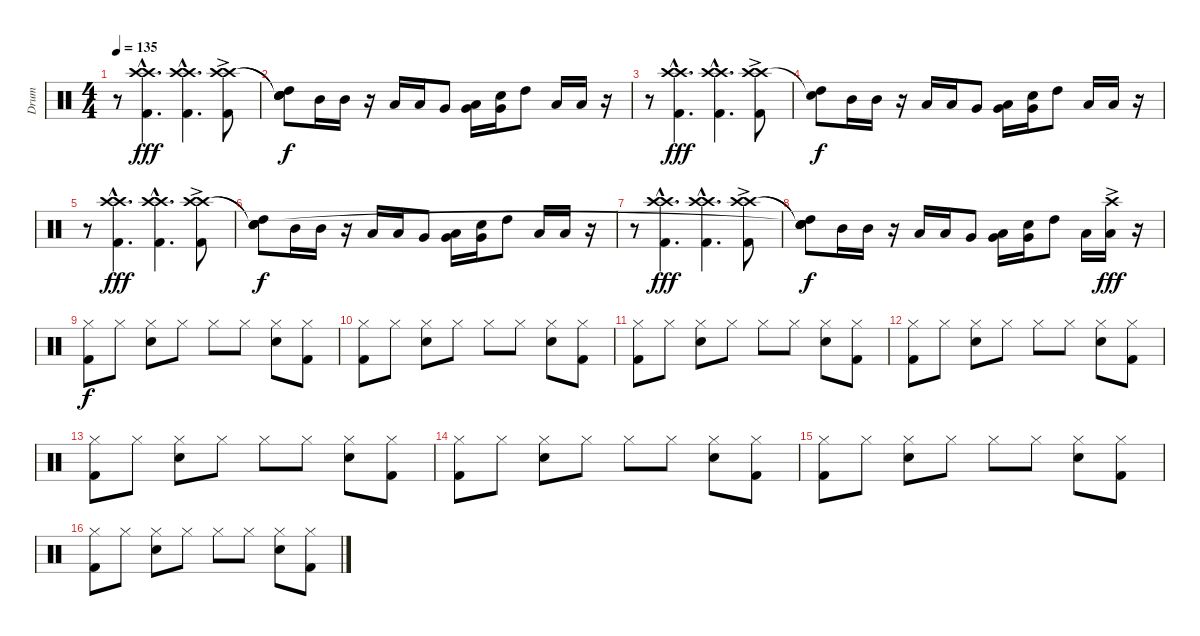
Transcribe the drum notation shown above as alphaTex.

\track ("Drum" "Drum") {instrument percussion}
\staff {score}
\articulation defaults
\ts (4 4)
\tempo 135
\clef neutral
\ks c
r.8{dy f} ("Crash high (hit)"{hac} "Crash high (hit)"{hac} "Kick (hit) 2"{hac}).4{d dy fff} ("Crash high (hit)"{hac} "Crash high (hit)"{hac} "Kick (hit) 2"{hac}).4{d} ("Crash high (hit)"{ac} "Crash high (hit)"{ac} "Kick (hit) 2"{ac}).8 |
("Snare (hit)"{t} "Snare (hit)"{t} "High Tom (hit)" "Snare (hit)").8{dy f} "Mid Tom (hit)".16 "Mid Tom (hit)".16 r.16 "Low Tom (hit)".16 "Low Tom (hit)".16 "Very Low Tom (hit)".8 ("Low Floor Tom (hit)" "Very Low Tom (hit)").16 ("Electric Snare (hit)" "Very Low Tom (hit)").16 "High Tom (hit)".8 "Low Floor Tom (hit)".16 "Low Floor Tom (hit)".16 r.16 |
r.8 ("Crash high (hit)"{hac} "Crash high (hit)"{hac} "Kick (hit) 2"{hac}).4{d dy fff} ("Crash high (hit)"{hac} "Crash high (hit)"{hac} "Kick (hit) 2"{hac}).4{d} ("Crash high (hit)"{ac} "Crash high (hit)"{ac} "Kick (hit) 2"{ac}).8 |
("High Tom (hit)" "Snare (hit)"{t}).8{dy f} "Mid Tom (hit)".16 "Mid Tom (hit)".16 r.16 "Low Tom (hit)".16 "Low Tom (hit)".16 "Very Low Tom (hit)".8 ("Low Floor Tom (hit)" "Very Low Tom (hit)").16 ("Electric Snare (hit)" "Very Low Tom (hit)").16 "High Tom (hit)".8 "Low Floor Tom (hit)".16 "Low Floor Tom (hit)".16 r.16 |
r.8 ("Crash high (hit)"{hac} "Crash high (hit)"{hac} "Kick (hit) 2"{hac}).4{d dy fff} ("Crash high (hit)"{hac} "Crash high (hit)"{hac} "Kick (hit) 2"{hac}).4{d} ("Crash high (hit)"{ac} "Crash high (hit)"{ac} "Kick (hit) 2"{ac}).8 |
("Snare (hit)"{t} "Snare (hit)"{t} "High Tom (hit)" "Snare (hit)").8{dy f} "Mid Tom (hit)".16 "Mid Tom (hit)".16 r.16 "Low Tom (hit)".16 "Low Tom (hit)".16 "Very Low Tom (hit)".8 ("Low Floor Tom (hit)" "Very Low Tom (hit)").16 ("Electric Snare (hit)" "Very Low Tom (hit)").16 "High Tom (hit)".8 "Low Floor Tom (hit)".16 "Low Floor Tom (hit)".16 r.16 |
r.8 ("Crash high (hit)"{hac} "Crash high (hit)"{hac} "Kick (hit) 2"{hac}).4{d dy fff} ("Crash high (hit)"{hac} "Crash high (hit)"{hac} "Kick (hit) 2"{hac}).4{d} ("Crash high (hit)"{ac} "Crash high (hit)"{ac} "Kick (hit) 2"{ac}).8 |
("Snare (hit)"{t} "Snare (hit)"{t} "High Tom (hit)" "Snare (hit)"{t}).8{dy f} "Mid Tom (hit)".16 "Mid Tom (hit)".16 r.16 "Low Tom (hit)".16 "Low Tom (hit)".16 "Very Low Tom (hit)".8 ("Low Floor Tom (hit)" "Very Low Tom (hit)").16 ("Electric Snare (hit)" "Very Low Tom (hit)").16 "High Tom (hit)".8 "Low Floor Tom (hit)".16 ("Crash high (hit)"{ac} "Low Floor Tom (hit)").16{dy fff} r.16 |
("Hi-Hat (closed)" "Kick (hit) 2").8{dy f} "Hi-Hat (closed)".8 ("Snare (hit) 2" "Hi-Hat (closed)").8 "Hi-Hat (closed)".8 "Hi-Hat (closed)".8 "Hi-Hat (closed)".8 ("Snare (hit) 2" "Hi-Hat (closed)").8 ("Hi-Hat (closed)" "Kick (hit) 2").8 |
("Hi-Hat (closed)" "Kick (hit) 2").8 "Hi-Hat (closed)".8 ("Snare (hit) 2" "Hi-Hat (closed)").8 "Hi-Hat (closed)".8 "Hi-Hat (closed)".8 "Hi-Hat (closed)".8 ("Snare (hit) 2" "Hi-Hat (closed)").8 ("Hi-Hat (closed)" "Kick (hit) 2").8 |
("Hi-Hat (closed)" "Kick (hit) 2").8 "Hi-Hat (closed)".8 ("Snare (hit) 2" "Hi-Hat (closed)").8 "Hi-Hat (closed)".8 "Hi-Hat (closed)".8 "Hi-Hat (closed)".8 ("Snare (hit) 2" "Hi-Hat (closed)").8 ("Hi-Hat (closed)" "Kick (hit) 2").8 |
("Hi-Hat (closed)" "Kick (hit) 2").8 "Hi-Hat (closed)".8 ("Snare (hit) 2" "Hi-Hat (closed)").8 "Hi-Hat (closed)".8 "Hi-Hat (closed)".8 "Hi-Hat (closed)".8 ("Snare (hit) 2" "Hi-Hat (closed)").8 ("Hi-Hat (closed)" "Kick (hit) 2").8 |
("Hi-Hat (closed)" "Kick (hit) 2").8 "Hi-Hat (closed)".8 ("Snare (hit) 2" "Hi-Hat (closed)").8 "Hi-Hat (closed)".8 "Hi-Hat (closed)".8 "Hi-Hat (closed)".8 ("Snare (hit) 2" "Hi-Hat (closed)").8 ("Hi-Hat (closed)" "Kick (hit) 2").8 |
("Hi-Hat (closed)" "Kick (hit) 2").8 "Hi-Hat (closed)".8 ("Snare (hit) 2" "Hi-Hat (closed)").8 "Hi-Hat (closed)".8 "Hi-Hat (closed)".8 "Hi-Hat (closed)".8 ("Snare (hit) 2" "Hi-Hat (closed)").8 ("Hi-Hat (closed)" "Kick (hit) 2").8 |
("Hi-Hat (closed)" "Kick (hit) 2").8 "Hi-Hat (closed)".8 ("Snare (hit) 2" "Hi-Hat (closed)").8 "Hi-Hat (closed)".8 "Hi-Hat (closed)".8 "Hi-Hat (closed)".8 ("Snare (hit) 2" "Hi-Hat (closed)").8 ("Hi-Hat (closed)" "Kick (hit) 2").8 |
("Hi-Hat (closed)" "Kick (hit) 2").8 "Hi-Hat (closed)".8 ("Snare (hit) 2" "Hi-Hat (closed)").8 "Hi-Hat (closed)".8 "Hi-Hat (closed)".8 "Hi-Hat (closed)".8 ("Snare (hit) 2" "Hi-Hat (closed)").8 ("Hi-Hat (closed)" "Kick (hit) 2").8
